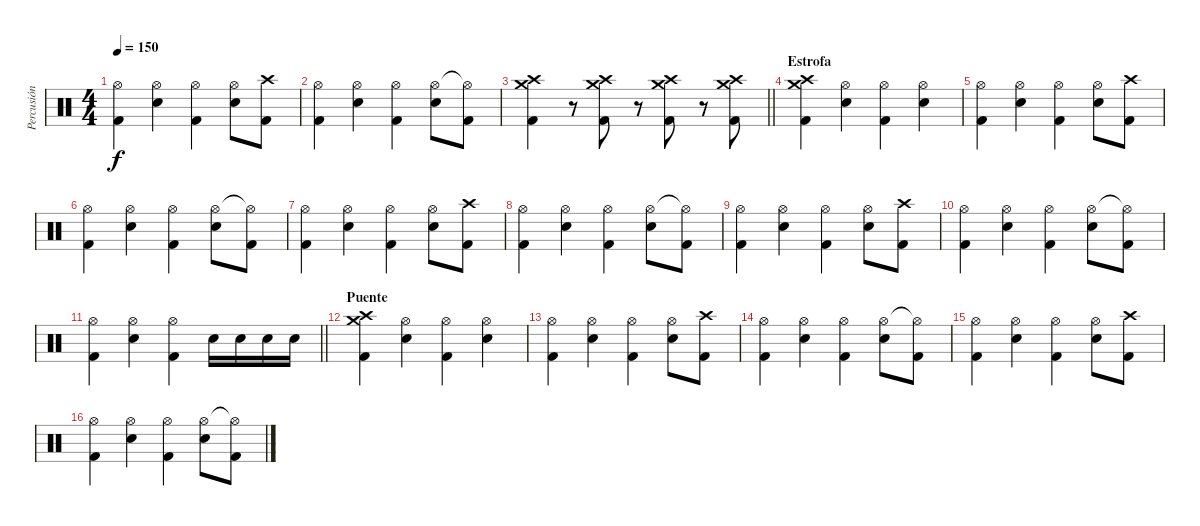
\track ("Percusión" "Percusión") {instrument percussion}
\staff {score}
\articulation defaults
\ts (4 4)
\tempo 150
\clef neutral
\ks c
("Kick (hit) 2" "Hi-Hat (open)").4{dy f} ("Electric Snare (hit)" "Hi-Hat (open)").4 ("Kick (hit) 2" "Hi-Hat (open)").4 ("Electric Snare (hit)" "Hi-Hat (open)").8 ("Kick (hit) 2" "Crash high (hit)").8 |
("Kick (hit) 2" "Hi-Hat (open)").4 ("Electric Snare (hit)" "Hi-Hat (open)").4 ("Kick (hit) 2" "Hi-Hat (open)").4 ("Electric Snare (hit)" "Hi-Hat (open)").8 ("Kick (hit) 2" "Hi-Hat (open)"{t}).8 |
\barLineRight lightlight
("Kick (hit) 2" "Crash medium (hit)" "Crash high (hit)").4 r.8 ("Crash medium (hit)" "Kick (hit) 2" "Crash high (hit)").8 r.8 ("Crash medium (hit)" "Kick (hit) 2" "Crash high (hit)").8 r.8 ("Crash high (hit)" "Crash medium (hit)" "Kick (hit) 2").8 |
\section ("" "Estrofa")
("Kick (hit) 2" "Crash high (hit)" "Crash medium (hit)").4 ("Electric Snare (hit)" "Hi-Hat (open)").4 ("Kick (hit) 2" "Hi-Hat (open)").4 ("Electric Snare (hit)" "Hi-Hat (open)").4 |
("Kick (hit) 2" "Hi-Hat (open)").4 ("Electric Snare (hit)" "Hi-Hat (open)").4 ("Kick (hit) 2" "Hi-Hat (open)").4 ("Electric Snare (hit)" "Hi-Hat (open)").8 ("Kick (hit) 2" "Crash high (hit)").8 |
("Kick (hit) 2" "Hi-Hat (open)").4 ("Electric Snare (hit)" "Hi-Hat (open)").4 ("Kick (hit) 2" "Hi-Hat (open)").4 ("Electric Snare (hit)" "Hi-Hat (open)").8 ("Kick (hit) 2" "Hi-Hat (open)"{t}).8 |
("Kick (hit) 2" "Hi-Hat (open)").4 ("Electric Snare (hit)" "Hi-Hat (open)").4 ("Kick (hit) 2" "Hi-Hat (open)").4 ("Electric Snare (hit)" "Hi-Hat (open)").8 ("Kick (hit) 2" "Crash high (hit)").8 |
("Kick (hit) 2" "Hi-Hat (open)").4 ("Electric Snare (hit)" "Hi-Hat (open)").4 ("Kick (hit) 2" "Hi-Hat (open)").4 ("Electric Snare (hit)" "Hi-Hat (open)").8 ("Kick (hit) 2" "Hi-Hat (open)"{t}).8 |
("Kick (hit) 2" "Hi-Hat (open)").4 ("Electric Snare (hit)" "Hi-Hat (open)").4 ("Kick (hit) 2" "Hi-Hat (open)").4 ("Electric Snare (hit)" "Hi-Hat (open)").8 ("Kick (hit) 2" "Crash high (hit)").8 |
("Kick (hit) 2" "Hi-Hat (open)").4 ("Electric Snare (hit)" "Hi-Hat (open)").4 ("Kick (hit) 2" "Hi-Hat (open)").4 ("Electric Snare (hit)" "Hi-Hat (open)").8 ("Kick (hit) 2" "Hi-Hat (open)"{t}).8 |
\barLineRight lightlight
("Kick (hit) 2" "Hi-Hat (open)").4 ("Electric Snare (hit)" "Hi-Hat (open)").4 ("Kick (hit) 2" "Hi-Hat (open)").4 "Electric Snare (hit)".16 "Electric Snare (hit)".16 "Electric Snare (hit)".16 "Electric Snare (hit)".16 |
\section ("" "Puente")
("Kick (hit) 2" "Crash high (hit)" "Crash medium (hit)").4 ("Electric Snare (hit)" "Hi-Hat (open)").4 ("Kick (hit) 2" "Hi-Hat (open)").4 ("Electric Snare (hit)" "Hi-Hat (open)").4 |
("Kick (hit) 2" "Hi-Hat (open)").4 ("Electric Snare (hit)" "Hi-Hat (open)").4 ("Kick (hit) 2" "Hi-Hat (open)").4 ("Electric Snare (hit)" "Hi-Hat (open)").8 ("Kick (hit) 2" "Crash high (hit)").8 |
("Kick (hit) 2" "Hi-Hat (open)").4 ("Electric Snare (hit)" "Hi-Hat (open)").4 ("Kick (hit) 2" "Hi-Hat (open)").4 ("Electric Snare (hit)" "Hi-Hat (open)").8 ("Kick (hit) 2" "Hi-Hat (open)"{t}).8 |
("Kick (hit) 2" "Hi-Hat (open)").4 ("Electric Snare (hit)" "Hi-Hat (open)").4 ("Kick (hit) 2" "Hi-Hat (open)").4 ("Electric Snare (hit)" "Hi-Hat (open)").8 ("Kick (hit) 2" "Crash high (hit)").8 |
("Kick (hit) 2" "Hi-Hat (open)").4 ("Electric Snare (hit)" "Hi-Hat (open)").4 ("Kick (hit) 2" "Hi-Hat (open)").4 ("Electric Snare (hit)" "Hi-Hat (open)").8 ("Kick (hit) 2" "Hi-Hat (open)"{t}).8
